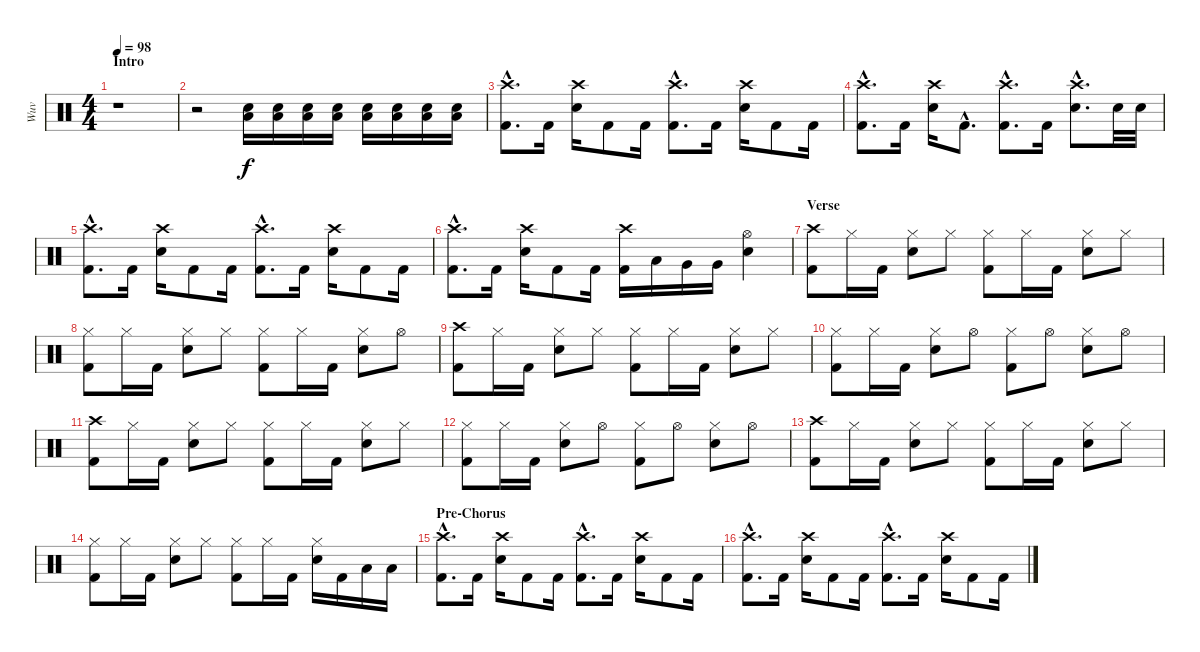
\track ("Wuv" "Wuv") {instrument percussion}
\staff {score}
\articulation defaults
\ts (4 4)
\section ("" "Intro")
\tempo 98
\clef neutral
\ks c
r.1{dy f} |
r.2{volume 0} ("Low Floor Tom (hit)" "Electric Snare (hit)").16{volume 16} ("Low Floor Tom (hit)" "Electric Snare (hit)").16 ("Low Floor Tom (hit)" "Electric Snare (hit)").16 ("Low Floor Tom (hit)" "Electric Snare (hit)").16 ("Low Floor Tom (hit)" "Electric Snare (hit)").16 ("Low Floor Tom (hit)" "Electric Snare (hit)").16 ("Low Floor Tom (hit)" "Electric Snare (hit)").16 ("Low Floor Tom (hit)" "Electric Snare (hit)").16 |
("Crash high (hit)"{hac} "Kick (hit) 2"{hac}).8{d} "Kick (hit) 2".16 ("Crash high (hit)" "Electric Snare (hit)").16 "Kick (hit) 2".8 "Kick (hit) 2".16 ("Crash high (hit)"{hac} "Kick (hit) 2"{hac}).8{d} "Kick (hit) 2".16 ("Crash high (hit)" "Electric Snare (hit)").16 "Kick (hit) 2".8 "Kick (hit) 2".16 |
("Crash high (hit)"{hac} "Kick (hit) 2"{hac}).8{d} "Kick (hit) 2".16 ("Crash high (hit)" "Electric Snare (hit)").16 "Kick (hit) 2"{hac}.8{d} ("Crash high (hit)"{hac} "Kick (hit) 2"{hac}).8{d} "Kick (hit) 2".16 ("Crash high (hit)"{hac} "Electric Snare (hit)"{hac}).8{d} "Electric Snare (hit)".32 "Electric Snare (hit)".32 |
("Crash high (hit)"{hac} "Kick (hit) 2"{hac}).8{d} "Kick (hit) 2".16 ("Crash high (hit)" "Electric Snare (hit)").16 "Kick (hit) 2".8 "Kick (hit) 2".16 ("Crash high (hit)"{hac} "Kick (hit) 2"{hac}).8{d} "Kick (hit) 2".16 ("Crash high (hit)" "Electric Snare (hit)").16 "Kick (hit) 2".8 "Kick (hit) 2".16 |
("Crash high (hit)"{hac} "Kick (hit) 2"{hac}).8{d} "Kick (hit) 2".16 ("Crash high (hit)" "Electric Snare (hit)").16 "Kick (hit) 2".8 "Kick (hit) 2".16 ("Crash high (hit)" "Kick (hit) 2").16 "Low Tom (hit)".16 "Very Low Tom (hit)".16 "Very Low Tom (hit)".16 ("Hi-Hat (open)" "Electric Snare (hit)").4 |
\section ("" "Verse")
("Crash high (hit)" "Kick (hit) 2").8 "Hi-Hat (closed)".16 "Kick (hit) 2".16 ("Hi-Hat (closed)" "Electric Snare (hit)").8 "Hi-Hat (closed)".8 ("Hi-Hat (closed)" "Kick (hit) 2").8 "Hi-Hat (closed)".16 "Kick (hit) 2".16 ("Hi-Hat (closed)" "Electric Snare (hit)").8 "Hi-Hat (closed)".8 |
("Hi-Hat (closed)" "Kick (hit) 2").8 "Hi-Hat (closed)".16 "Kick (hit) 2".16 ("Hi-Hat (closed)" "Electric Snare (hit)").8 "Hi-Hat (closed)".8 ("Hi-Hat (closed)" "Kick (hit) 2").8 "Hi-Hat (closed)".16 "Kick (hit) 2".16 ("Hi-Hat (closed)" "Electric Snare (hit)").8 "Hi-Hat (open)".8 |
("Crash high (hit)" "Kick (hit) 2").8 "Hi-Hat (closed)".16 "Kick (hit) 2".16 ("Hi-Hat (closed)" "Electric Snare (hit)").8 "Hi-Hat (closed)".8 ("Hi-Hat (closed)" "Kick (hit) 2").8 "Hi-Hat (closed)".16 "Kick (hit) 2".16 ("Hi-Hat (closed)" "Electric Snare (hit)").8 "Hi-Hat (closed)".8 |
("Hi-Hat (closed)" "Kick (hit) 2").8 "Hi-Hat (closed)".16 "Kick (hit) 2".16 ("Hi-Hat (closed)" "Electric Snare (hit)").8 "Hi-Hat (open)".8 ("Hi-Hat (closed)" "Kick (hit) 2").8 "Hi-Hat (open)".8 ("Hi-Hat (closed)" "Electric Snare (hit)").8 "Hi-Hat (open)".8 |
("Crash high (hit)" "Kick (hit) 2").8 "Hi-Hat (closed)".16 "Kick (hit) 2".16 ("Hi-Hat (closed)" "Electric Snare (hit)").8 "Hi-Hat (closed)".8 ("Hi-Hat (closed)" "Kick (hit) 2").8 "Hi-Hat (closed)".16 "Kick (hit) 2".16 ("Hi-Hat (closed)" "Electric Snare (hit)").8 "Hi-Hat (closed)".8 |
("Hi-Hat (closed)" "Kick (hit) 2").8 "Hi-Hat (closed)".16 "Kick (hit) 2".16 ("Hi-Hat (closed)" "Electric Snare (hit)").8 "Hi-Hat (open)".8 ("Hi-Hat (closed)" "Kick (hit) 2").8 "Hi-Hat (open)".8 ("Hi-Hat (closed)" "Electric Snare (hit)").8 "Hi-Hat (open)".8 |
("Crash high (hit)" "Kick (hit) 2").8 "Hi-Hat (closed)".16 "Kick (hit) 2".16 ("Hi-Hat (closed)" "Electric Snare (hit)").8 "Hi-Hat (closed)".8 ("Hi-Hat (closed)" "Kick (hit) 2").8 "Hi-Hat (closed)".16 "Kick (hit) 2".16 ("Hi-Hat (closed)" "Electric Snare (hit)").8 "Hi-Hat (closed)".8 |
("Hi-Hat (closed)" "Kick (hit) 2").8 "Hi-Hat (closed)".16 "Kick (hit) 2".16 ("Hi-Hat (closed)" "Electric Snare (hit)").8 "Hi-Hat (closed)".8 ("Hi-Hat (closed)" "Kick (hit) 2").8 "Hi-Hat (closed)".16 "Kick (hit) 2".16 ("Hi-Hat (closed)" "Electric Snare (hit)").16 "Kick (hit) 2".16 "Low Floor Tom (hit)".16 "Low Floor Tom (hit)".16 |
\section ("" "Pre-Chorus")
("Crash high (hit)"{hac} "Kick (hit) 2"{hac}).8{d} "Kick (hit) 2".16 ("Crash high (hit)" "Electric Snare (hit)").16 "Kick (hit) 2".8 "Kick (hit) 2".16 ("Crash high (hit)"{hac} "Kick (hit) 2"{hac}).8{d} "Kick (hit) 2".16 ("Crash high (hit)" "Electric Snare (hit)").16 "Kick (hit) 2".8 "Kick (hit) 2".16 |
("Crash high (hit)"{hac} "Kick (hit) 2"{hac}).8{d} "Kick (hit) 2".16 ("Crash high (hit)" "Electric Snare (hit)").16 "Kick (hit) 2".8 "Kick (hit) 2".16 ("Crash high (hit)"{hac} "Kick (hit) 2"{hac}).8{d} "Kick (hit) 2".16 ("Crash high (hit)" "Electric Snare (hit)").16 "Kick (hit) 2".8 "Kick (hit) 2".16
